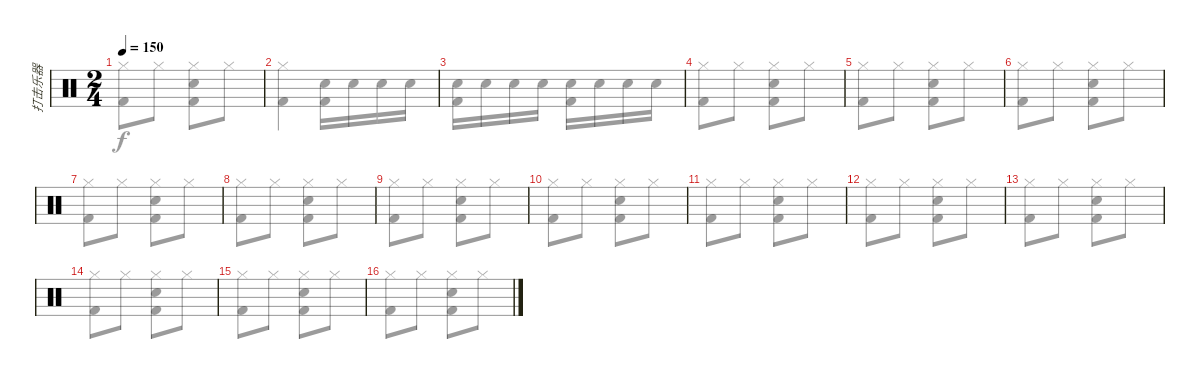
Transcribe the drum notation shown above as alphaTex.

\track ("打击乐器" "打击乐器") {instrument percussion bank 10}
\staff {score}
\articulation defaults
\voice
\ts (2 4)
\tempo 150
\clef neutral
\ks c
|
|
|
|
|
|
|
|
|
|
|
|
|
|
|
\voice
\clef neutral
\ks c
("Hi-Hat (closed)" "Kick (hit) 2").8{dy f} "Hi-Hat (closed)".8 ("Hi-Hat (closed)" "Electric Snare (hit)" "Kick (hit) 2").8 "Hi-Hat (closed)".8 |
("Hi-Hat (closed)" "Kick (hit) 2").4 ("Electric Snare (hit)" "Kick (hit) 2").16 "Electric Snare (hit)".16 "Electric Snare (hit)".16 "Electric Snare (hit)".16 |
("Electric Snare (hit)" "Kick (hit) 2").16 "Electric Snare (hit)".16 "Electric Snare (hit)".16 "Electric Snare (hit)".16 ("Electric Snare (hit)" "Kick (hit) 2").16 "Electric Snare (hit)".16 "Electric Snare (hit)".16 "Electric Snare (hit)".16 |
("Hi-Hat (closed)" "Kick (hit) 2").8 "Hi-Hat (closed)".8 ("Hi-Hat (closed)" "Electric Snare (hit)" "Kick (hit) 2").8 "Hi-Hat (closed)".8 |
("Hi-Hat (closed)" "Kick (hit) 2").8 "Hi-Hat (closed)".8 ("Hi-Hat (closed)" "Electric Snare (hit)" "Kick (hit) 2").8 "Hi-Hat (closed)".8 |
("Hi-Hat (closed)" "Kick (hit) 2").8 "Hi-Hat (closed)".8 ("Hi-Hat (closed)" "Electric Snare (hit)" "Kick (hit) 2").8 "Hi-Hat (closed)".8 |
("Hi-Hat (closed)" "Kick (hit) 2").8 "Hi-Hat (closed)".8 ("Hi-Hat (closed)" "Electric Snare (hit)" "Kick (hit) 2").8 "Hi-Hat (closed)".8 |
("Hi-Hat (closed)" "Kick (hit) 2").8 "Hi-Hat (closed)".8 ("Hi-Hat (closed)" "Electric Snare (hit)" "Kick (hit) 2").8 "Hi-Hat (closed)".8 |
("Hi-Hat (closed)" "Kick (hit) 2").8 "Hi-Hat (closed)".8 ("Hi-Hat (closed)" "Electric Snare (hit)" "Kick (hit) 2").8 "Hi-Hat (closed)".8 |
("Hi-Hat (closed)" "Kick (hit) 2").8 "Hi-Hat (closed)".8 ("Hi-Hat (closed)" "Electric Snare (hit)" "Kick (hit) 2").8 "Hi-Hat (closed)".8 |
("Hi-Hat (closed)" "Kick (hit) 2").8 "Hi-Hat (closed)".8 ("Hi-Hat (closed)" "Electric Snare (hit)" "Kick (hit) 2").8 "Hi-Hat (closed)".8 |
("Hi-Hat (closed)" "Kick (hit) 2").8 "Hi-Hat (closed)".8 ("Hi-Hat (closed)" "Electric Snare (hit)" "Kick (hit) 2").8 "Hi-Hat (closed)".8 |
("Hi-Hat (closed)" "Kick (hit) 2").8 "Hi-Hat (closed)".8 ("Hi-Hat (closed)" "Electric Snare (hit)" "Kick (hit) 2").8 "Hi-Hat (closed)".8 |
("Hi-Hat (closed)" "Kick (hit) 2").8 "Hi-Hat (closed)".8 ("Hi-Hat (closed)" "Electric Snare (hit)" "Kick (hit) 2").8 "Hi-Hat (closed)".8 |
("Hi-Hat (closed)" "Kick (hit) 2").8 "Hi-Hat (closed)".8 ("Hi-Hat (closed)" "Electric Snare (hit)" "Kick (hit) 2").8 "Hi-Hat (closed)".8 |
("Hi-Hat (closed)" "Kick (hit) 2").8 "Hi-Hat (closed)".8 ("Hi-Hat (closed)" "Electric Snare (hit)" "Kick (hit) 2").8 "Hi-Hat (closed)".8
